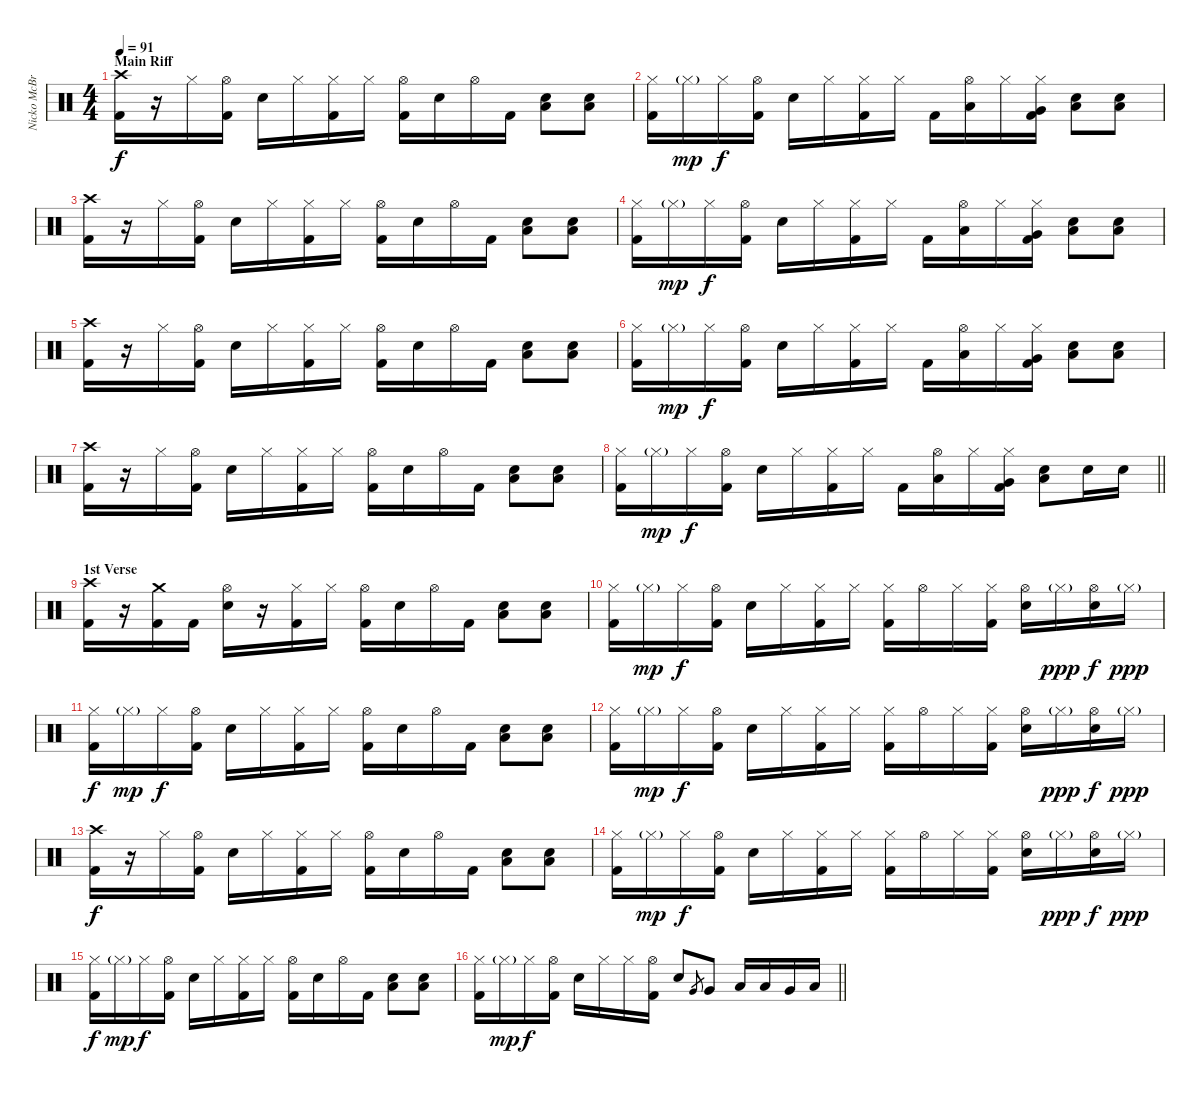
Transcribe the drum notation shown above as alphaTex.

\track ("Nicko McBrian" "Nicko McBr") {instrument percussion}
\staff {score}
\articulation defaults
\ts (4 4)
\section ("" "Main Riff")
\tempo 91
\clef neutral
\ks c
("Crash high (hit)" "Kick (hit) 2").16{dy f} r.16 "Hi-Hat (closed)".16 ("Hi-Hat (open)" "Kick (hit) 2").16 "Snare (hit) 2".16 "Hi-Hat (closed)".16 ("Hi-Hat (closed)" "Kick (hit) 2").16 "Hi-Hat (closed)".16 ("Hi-Hat (open)" "Kick (hit) 2").16 "Snare (hit) 2".16 "Hi-Hat (open)".16 "Kick (hit) 2".16 ("Low Floor Tom (hit)" "Snare (hit) 2").8 ("Low Floor Tom (hit)" "Snare (hit) 2").8 |
("Hi-Hat (closed)" "Kick (hit) 2").16 "Hi-Hat (closed)"{g}.16{dy mp} "Hi-Hat (closed)".16{dy f} ("Hi-Hat (open)" "Kick (hit) 2").16 "Snare (hit) 2".16 "Hi-Hat (closed)".16 ("Hi-Hat (closed)" "Kick (hit) 2").16 "Hi-Hat (closed)".16 "Kick (hit) 2".16 ("Low Tom (hit)" "Hi-Hat (open)").16 "Hi-Hat (closed)".16 ("Hi-Hat (closed)" "Very Low Tom (hit)" "Kick (hit) 2").16 ("Low Floor Tom (hit)" "Snare (hit) 2").8 ("Low Floor Tom (hit)" "Snare (hit) 2").8 |
("Crash high (hit)" "Kick (hit) 2").16 r.16 "Hi-Hat (closed)".16 ("Hi-Hat (open)" "Kick (hit) 2").16 "Snare (hit) 2".16 "Hi-Hat (closed)".16 ("Hi-Hat (closed)" "Kick (hit) 2").16 "Hi-Hat (closed)".16 ("Hi-Hat (open)" "Kick (hit) 2").16 "Snare (hit) 2".16 "Hi-Hat (open)".16 "Kick (hit) 2".16 ("Low Floor Tom (hit)" "Snare (hit) 2").8 ("Low Floor Tom (hit)" "Snare (hit) 2").8 |
("Hi-Hat (closed)" "Kick (hit) 2").16 "Hi-Hat (closed)"{g}.16{dy mp} "Hi-Hat (closed)".16{dy f} ("Hi-Hat (open)" "Kick (hit) 2").16 "Snare (hit) 2".16 "Hi-Hat (closed)".16 ("Hi-Hat (closed)" "Kick (hit) 2").16 "Hi-Hat (closed)".16 "Kick (hit) 2".16 ("Low Tom (hit)" "Hi-Hat (open)").16 "Hi-Hat (closed)".16 ("Hi-Hat (closed)" "Very Low Tom (hit)" "Kick (hit) 2").16 ("Low Floor Tom (hit)" "Snare (hit) 2").8 ("Low Floor Tom (hit)" "Snare (hit) 2").8 |
("Crash high (hit)" "Kick (hit) 2").16 r.16 "Hi-Hat (closed)".16 ("Hi-Hat (open)" "Kick (hit) 2").16 "Snare (hit) 2".16 "Hi-Hat (closed)".16 ("Hi-Hat (closed)" "Kick (hit) 2").16 "Hi-Hat (closed)".16 ("Hi-Hat (open)" "Kick (hit) 2").16 "Snare (hit) 2".16 "Hi-Hat (open)".16 "Kick (hit) 2".16 ("Low Floor Tom (hit)" "Snare (hit) 2").8 ("Low Floor Tom (hit)" "Snare (hit) 2").8 |
("Hi-Hat (closed)" "Kick (hit) 2").16 "Hi-Hat (closed)"{g}.16{dy mp} "Hi-Hat (closed)".16{dy f} ("Hi-Hat (open)" "Kick (hit) 2").16 "Snare (hit) 2".16 "Hi-Hat (closed)".16 ("Hi-Hat (closed)" "Kick (hit) 2").16 "Hi-Hat (closed)".16 "Kick (hit) 2".16 ("Low Tom (hit)" "Hi-Hat (open)").16 "Hi-Hat (closed)".16 ("Hi-Hat (closed)" "Very Low Tom (hit)" "Kick (hit) 2").16 ("Low Floor Tom (hit)" "Snare (hit) 2").8 ("Low Floor Tom (hit)" "Snare (hit) 2").8 |
("Crash high (hit)" "Kick (hit) 2").16 r.16 "Hi-Hat (closed)".16 ("Hi-Hat (open)" "Kick (hit) 2").16 "Snare (hit) 2".16 "Hi-Hat (closed)".16 ("Hi-Hat (closed)" "Kick (hit) 2").16 "Hi-Hat (closed)".16 ("Hi-Hat (open)" "Kick (hit) 2").16 "Snare (hit) 2".16 "Hi-Hat (open)".16 "Kick (hit) 2".16 ("Low Floor Tom (hit)" "Snare (hit) 2").8 ("Low Floor Tom (hit)" "Snare (hit) 2").8 |
\barLineRight lightlight
("Hi-Hat (closed)" "Kick (hit) 2").16 "Hi-Hat (closed)"{g}.16{dy mp} "Hi-Hat (closed)".16{dy f} ("Hi-Hat (open)" "Kick (hit) 2").16 "Snare (hit) 2".16 "Hi-Hat (closed)".16 ("Hi-Hat (closed)" "Kick (hit) 2").16 "Hi-Hat (closed)".16 "Kick (hit) 2".16 ("Low Tom (hit)" "Hi-Hat (open)").16 "Hi-Hat (closed)".16 ("Hi-Hat (closed)" "Very Low Tom (hit)" "Kick (hit) 2").16 ("Low Floor Tom (hit)" "Snare (hit) 2").8 "Snare (hit) 2".16 "Snare (hit) 2".16 |
\section ("" "1st Verse")
("Crash high (hit)" "Kick (hit) 2").16 r.16 ("Crash medium (hit)" "Kick (hit) 2").16 "Kick (hit) 2".16 ("Hi-Hat (open)" "Snare (hit) 2").16 r.16 ("Hi-Hat (closed)" "Kick (hit) 2").16 "Hi-Hat (closed)".16 ("Hi-Hat (open)" "Kick (hit) 2").16 "Snare (hit) 2".16 "Hi-Hat (open)".16 "Kick (hit) 2".16 ("Low Floor Tom (hit)" "Snare (hit) 2").8 ("Low Floor Tom (hit)" "Snare (hit) 2").8 |
("Hi-Hat (closed)" "Kick (hit) 2").16 "Hi-Hat (closed)"{g}.16{dy mp} "Hi-Hat (closed)".16{dy f} ("Hi-Hat (open)" "Kick (hit) 2").16 "Snare (hit) 2".16 "Hi-Hat (closed)".16 ("Hi-Hat (closed)" "Kick (hit) 2").16 "Hi-Hat (closed)".16 ("Hi-Hat (closed)" "Kick (hit) 2").16 "Hi-Hat (open)".16 "Hi-Hat (closed)".16 ("Hi-Hat (closed)" "Kick (hit) 2").16 ("Hi-Hat (open)" "Snare (hit) 2").16 "Hi-Hat (closed)"{g}.16{dy ppp} ("Hi-Hat (open)" "Snare (hit) 2").16{dy f} "Hi-Hat (closed)"{g}.16{dy ppp} |
("Hi-Hat (closed)" "Kick (hit) 2").16{dy f} "Hi-Hat (closed)"{g}.16{dy mp} "Hi-Hat (closed)".16{dy f} ("Hi-Hat (open)" "Kick (hit) 2").16 "Snare (hit) 2".16 "Hi-Hat (closed)".16 ("Hi-Hat (closed)" "Kick (hit) 2").16 "Hi-Hat (closed)".16 ("Hi-Hat (open)" "Kick (hit) 2").16 "Snare (hit) 2".16 "Hi-Hat (open)".16 "Kick (hit) 2".16 ("Low Floor Tom (hit)" "Snare (hit) 2").8 ("Low Floor Tom (hit)" "Snare (hit) 2").8 |
("Hi-Hat (closed)" "Kick (hit) 2").16 "Hi-Hat (closed)"{g}.16{dy mp} "Hi-Hat (closed)".16{dy f} ("Hi-Hat (open)" "Kick (hit) 2").16 "Snare (hit) 2".16 "Hi-Hat (closed)".16 ("Hi-Hat (closed)" "Kick (hit) 2").16 "Hi-Hat (closed)".16 ("Hi-Hat (closed)" "Kick (hit) 2").16 "Hi-Hat (open)".16 "Hi-Hat (closed)".16 ("Hi-Hat (closed)" "Kick (hit) 2").16 ("Hi-Hat (open)" "Snare (hit) 2").16 "Hi-Hat (closed)"{g}.16{dy ppp} ("Hi-Hat (open)" "Snare (hit) 2").16{dy f} "Hi-Hat (closed)"{g}.16{dy ppp} |
("Crash high (hit)" "Kick (hit) 2").16{dy f} r.16 "Hi-Hat (closed)".16 ("Hi-Hat (open)" "Kick (hit) 2").16 "Snare (hit) 2".16 "Hi-Hat (closed)".16 ("Hi-Hat (closed)" "Kick (hit) 2").16 "Hi-Hat (closed)".16 ("Hi-Hat (open)" "Kick (hit) 2").16 "Snare (hit) 2".16 "Hi-Hat (open)".16 "Kick (hit) 2".16 ("Low Floor Tom (hit)" "Snare (hit) 2").8 ("Low Floor Tom (hit)" "Snare (hit) 2").8 |
("Hi-Hat (closed)" "Kick (hit) 2").16 "Hi-Hat (closed)"{g}.16{dy mp} "Hi-Hat (closed)".16{dy f} ("Hi-Hat (open)" "Kick (hit) 2").16 "Snare (hit) 2".16 "Hi-Hat (closed)".16 ("Hi-Hat (closed)" "Kick (hit) 2").16 "Hi-Hat (closed)".16 ("Hi-Hat (closed)" "Kick (hit) 2").16 "Hi-Hat (open)".16 "Hi-Hat (closed)".16 ("Hi-Hat (closed)" "Kick (hit) 2").16 ("Hi-Hat (open)" "Snare (hit) 2").16 "Hi-Hat (closed)"{g}.16{dy ppp} ("Hi-Hat (open)" "Snare (hit) 2").16{dy f} "Hi-Hat (closed)"{g}.16{dy ppp} |
("Hi-Hat (closed)" "Kick (hit) 2").16{dy f} "Hi-Hat (closed)"{g}.16{dy mp} "Hi-Hat (closed)".16{dy f} ("Hi-Hat (open)" "Kick (hit) 2").16 "Snare (hit) 2".16 "Hi-Hat (closed)".16 ("Hi-Hat (closed)" "Kick (hit) 2").16 "Hi-Hat (closed)".16 ("Hi-Hat (open)" "Kick (hit) 2").16 "Snare (hit) 2".16 "Hi-Hat (open)".16 "Kick (hit) 2".16 ("Low Floor Tom (hit)" "Snare (hit) 2").8 ("Low Floor Tom (hit)" "Snare (hit) 2").8 |
\barLineRight lightlight
("Hi-Hat (closed)" "Kick (hit) 2").16 "Hi-Hat (closed)"{g}.16{dy mp} "Hi-Hat (closed)".16{dy f} ("Hi-Hat (open)" "Kick (hit) 2").16 "Snare (hit) 2".16 "Hi-Hat (closed)".16 "Hi-Hat (closed)".16 ("Hi-Hat (open)" "Kick (hit) 2").16 "Snare (hit) 2".8 "Very Low Tom (hit)".8{gr} "Very Low Tom (hit)".8 "Low Tom (hit)".16 "Low Tom (hit)".16 "Very Low Tom (hit)".16 "Low Floor Tom (hit)".16
